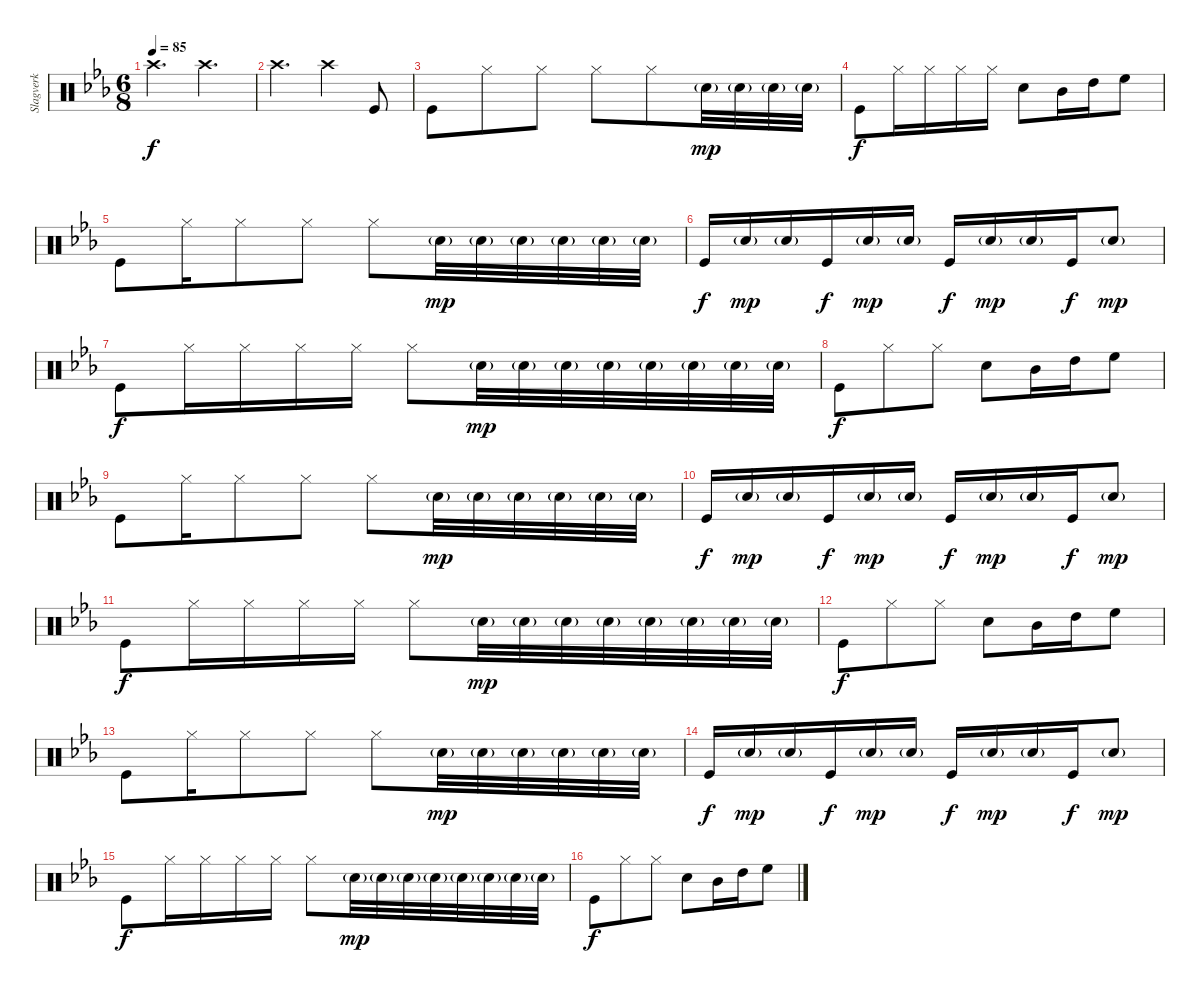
\track ("Slagverk" "Slagverk") {instrument percussion}
\staff {score}
\articulation defaults
\ts (6 8)
\tempo 85
\clef neutral
\ks eb "Crash high (hit)".4{d lyrics (0 "") lyrics (1 "") lyrics (2 "") lyrics (3 "") lyrics (4 "") dy f} "Crash high (hit)".4{d}
|
"Crash high (hit)".4{d} "Crash high (hit)".4 "Kick (hit)".8 |
"Kick (hit)".8 "Hi-Hat (closed)".8 "Hi-Hat (closed)".8 "Hi-Hat (closed)".8 "Hi-Hat (closed)".8 "Snare (hit) 2"{g}.32{dy mp} "Snare (hit) 2"{g}.32 "Snare (hit) 2"{g}.32 "Snare (hit) 2"{g}.32 |
"Kick (hit)".8{dy f} "Hi-Hat (closed)".16 "Hi-Hat (closed)".16 "Hi-Hat (closed)".16 "Hi-Hat (closed)".16 "Snare (hit) 2".8 "Mid Tom (hit)".16 "High Tom (hit)".16 "High Floor Tom (hit)".8 |
"Kick (hit)".8 "Hi-Hat (closed)".16 "Hi-Hat (closed)".8 "Hi-Hat (closed)".8 "Hi-Hat (closed)".8 "Snare (hit) 2"{g}.32{dy mp} "Snare (hit) 2"{g}.32 "Snare (hit) 2"{g}.32 "Snare (hit) 2"{g}.32 "Snare (hit) 2"{g}.32 "Snare (hit) 2"{g}.32 |
"Kick (hit)".16{dy f} "Snare (hit) 2"{g}.16{dy mp} "Snare (hit) 2"{g}.16 "Kick (hit)".16{dy f} "Snare (hit) 2"{g}.16{dy mp} "Snare (hit) 2"{g}.16 "Kick (hit)".16{dy f} "Snare (hit) 2"{g}.16{dy mp} "Snare (hit) 2"{g}.16 "Kick (hit)".16{dy f} "Snare (hit) 2"{g}.8{dy mp} |
"Kick (hit)".8{dy f} "Hi-Hat (closed)".16 "Hi-Hat (closed)".16 "Hi-Hat (closed)".16 "Hi-Hat (closed)".16 "Hi-Hat (closed)".8 "Snare (hit) 2"{g}.32{dy mp} "Snare (hit) 2"{g}.32 "Snare (hit) 2"{g}.32 "Snare (hit) 2"{g}.32 "Snare (hit) 2"{g}.32 "Snare (hit) 2"{g}.32 "Snare (hit) 2"{g}.32 "Snare (hit) 2"{g}.32 |
"Kick (hit)".8{dy f} "Hi-Hat (closed)".8 "Hi-Hat (closed)".8 "Snare (hit) 2".8 "Mid Tom (hit)".16 "High Tom (hit)".16 "High Floor Tom (hit)".8 |
"Kick (hit)".8 "Hi-Hat (closed)".16 "Hi-Hat (closed)".8 "Hi-Hat (closed)".8 "Hi-Hat (closed)".8 "Snare (hit) 2"{g}.32{dy mp} "Snare (hit) 2"{g}.32 "Snare (hit) 2"{g}.32 "Snare (hit) 2"{g}.32 "Snare (hit) 2"{g}.32 "Snare (hit) 2"{g}.32 |
"Kick (hit)".16{dy f} "Snare (hit) 2"{g}.16{dy mp} "Snare (hit) 2"{g}.16 "Kick (hit)".16{dy f} "Snare (hit) 2"{g}.16{dy mp} "Snare (hit) 2"{g}.16 "Kick (hit)".16{dy f} "Snare (hit) 2"{g}.16{dy mp} "Snare (hit) 2"{g}.16 "Kick (hit)".16{dy f} "Snare (hit) 2"{g}.8{dy mp} |
"Kick (hit)".8{dy f} "Hi-Hat (closed)".16 "Hi-Hat (closed)".16 "Hi-Hat (closed)".16 "Hi-Hat (closed)".16 "Hi-Hat (closed)".8 "Snare (hit) 2"{g}.32{dy mp} "Snare (hit) 2"{g}.32 "Snare (hit) 2"{g}.32 "Snare (hit) 2"{g}.32 "Snare (hit) 2"{g}.32 "Snare (hit) 2"{g}.32 "Snare (hit) 2"{g}.32 "Snare (hit) 2"{g}.32 |
"Kick (hit)".8{dy f} "Hi-Hat (closed)".8 "Hi-Hat (closed)".8 "Snare (hit) 2".8 "Mid Tom (hit)".16 "High Tom (hit)".16 "High Floor Tom (hit)".8 |
"Kick (hit)".8 "Hi-Hat (closed)".16 "Hi-Hat (closed)".8 "Hi-Hat (closed)".8 "Hi-Hat (closed)".8 "Snare (hit) 2"{g}.32{dy mp} "Snare (hit) 2"{g}.32 "Snare (hit) 2"{g}.32 "Snare (hit) 2"{g}.32 "Snare (hit) 2"{g}.32 "Snare (hit) 2"{g}.32 |
"Kick (hit)".16{dy f} "Snare (hit) 2"{g}.16{dy mp} "Snare (hit) 2"{g}.16 "Kick (hit)".16{dy f} "Snare (hit) 2"{g}.16{dy mp} "Snare (hit) 2"{g}.16 "Kick (hit)".16{dy f} "Snare (hit) 2"{g}.16{dy mp} "Snare (hit) 2"{g}.16 "Kick (hit)".16{dy f} "Snare (hit) 2"{g}.8{dy mp} |
"Kick (hit)".8{dy f} "Hi-Hat (closed)".16 "Hi-Hat (closed)".16 "Hi-Hat (closed)".16 "Hi-Hat (closed)".16 "Hi-Hat (closed)".8 "Snare (hit) 2"{g}.32{dy mp} "Snare (hit) 2"{g}.32 "Snare (hit) 2"{g}.32 "Snare (hit) 2"{g}.32 "Snare (hit) 2"{g}.32 "Snare (hit) 2"{g}.32 "Snare (hit) 2"{g}.32 "Snare (hit) 2"{g}.32 |
"Kick (hit)".8{dy f} "Hi-Hat (closed)".8 "Hi-Hat (closed)".8 "Snare (hit) 2".8 "Mid Tom (hit)".16 "High Tom (hit)".16 "High Floor Tom (hit)".8
